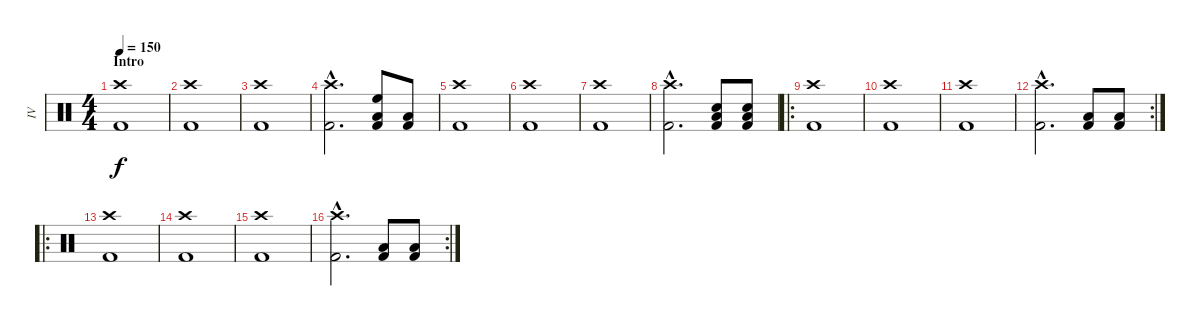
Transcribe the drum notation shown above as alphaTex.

\track ("IV" "IV") {instrument percussion}
\staff {score}
\articulation defaults
\ts (4 4)
\section ("" "Intro")
\tempo 150
\clef neutral
\ks c
("Crash high (hit)" "Kick (hit) 2").1{dy f} |
("Crash high (hit)" "Kick (hit) 2").1 |
("Crash high (hit)" "Kick (hit) 2").1 |
("Crash high (hit)"{hac} "Kick (hit) 2"{hac}).2{d} ("High Floor Tom (hit)" "Low Tom (hit)" "Kick (hit) 2").8 ("Low Tom (hit)" "Kick (hit) 2").8 |
("Crash high (hit)" "Kick (hit) 2").1 |
("Crash high (hit)" "Kick (hit) 2").1 |
("Crash high (hit)" "Kick (hit) 2").1 |
("Crash high (hit)"{hac} "Kick (hit) 2"{hac}).2{d} ("Low Tom (hit)" "Snare (hit) 2" "Kick (hit) 2").8 ("Low Tom (hit)" "Snare (hit) 2" "Kick (hit) 2").8 |
\ro
("Crash high (hit)" "Kick (hit) 2").1 |
("Crash high (hit)" "Kick (hit) 2").1 |
("Crash high (hit)" "Kick (hit) 2").1 |
\rc 2
("Crash high (hit)"{hac} "Kick (hit) 2"{hac}).2{d} ("Low Tom (hit)" "Kick (hit) 2").8 ("Low Tom (hit)" "Kick (hit) 2").8 |
\ro
("Crash high (hit)" "Kick (hit) 2").1 |
("Crash high (hit)" "Kick (hit) 2").1 |
("Crash high (hit)" "Kick (hit) 2").1 |
\rc 2
("Crash high (hit)"{hac} "Kick (hit) 2"{hac}).2{d} ("Low Tom (hit)" "Kick (hit) 2").8 ("Low Tom (hit)" "Kick (hit) 2").8
